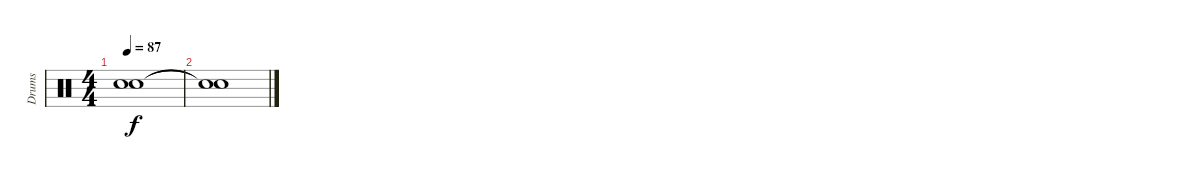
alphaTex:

\track ("Drums" "Drums") {instrument percussion}
\staff {score}
\articulation defaults
\ts (4 4)
\tempo 87
\clef neutral
\ks c
("Snare (hit)"{t} "Snare (hit)"{t}).1{dy f} |
("Snare (hit)"{t} "Snare (hit)"{t}).1
